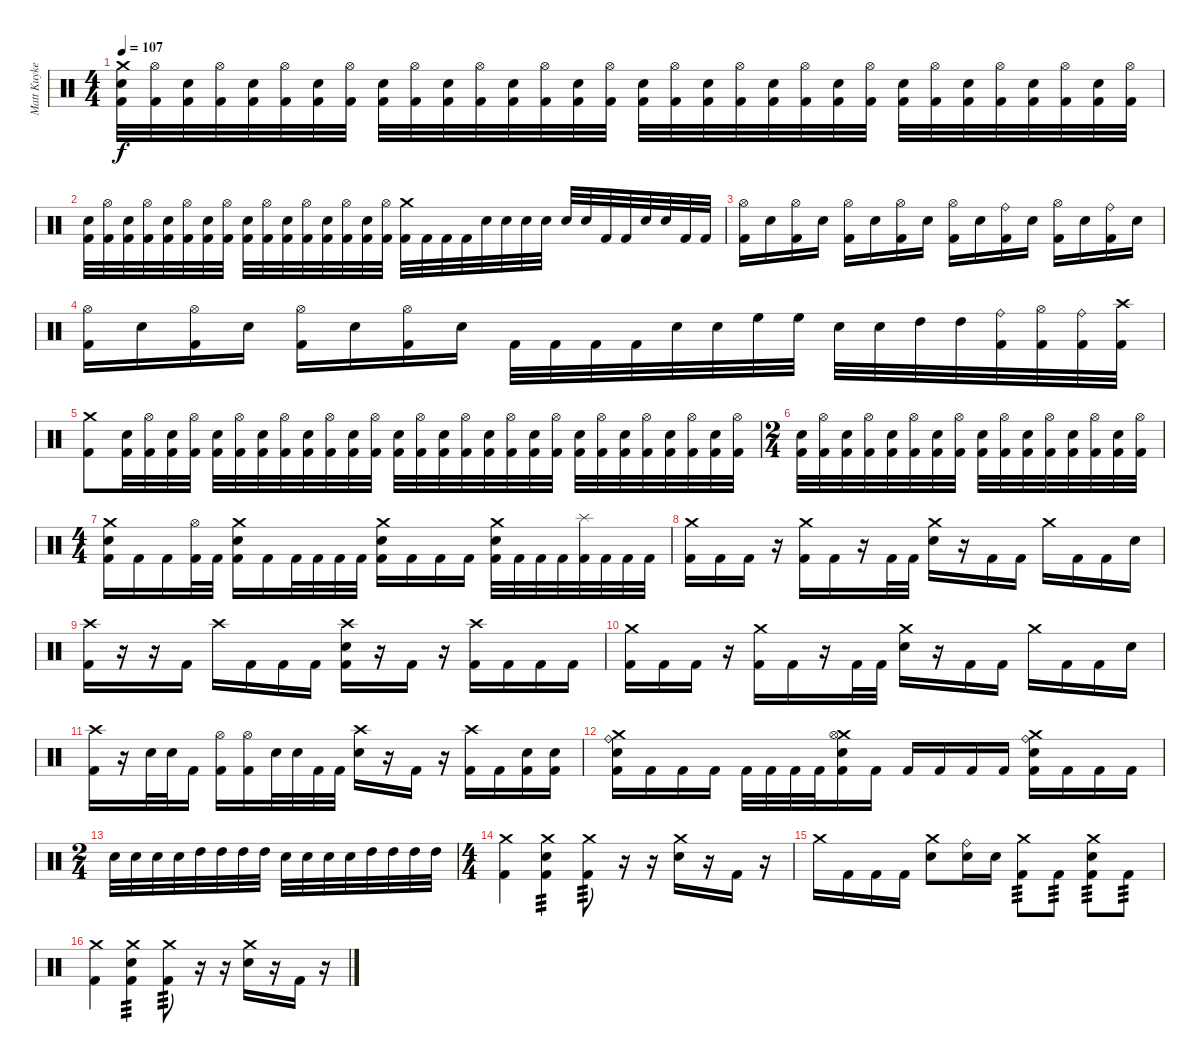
\track ("Matt Kuykendall" "Matt Kuyke") {instrument percussion}
\staff {score}
\articulation defaults
\ts (4 4)
\tempo 107
\clef neutral
\ks c
("Crash medium (hit)" "Electric Snare (hit)" "Kick (hit) 2").32{dy f} ("Hi-Hat (open)" "Kick (hit) 2").32 ("Electric Snare (hit)" "Kick (hit) 2").32 ("Hi-Hat (open)" "Kick (hit) 2").32 ("Electric Snare (hit)" "Kick (hit) 2").32 ("Hi-Hat (open)" "Kick (hit) 2").32 ("Electric Snare (hit)" "Kick (hit) 2").32 ("Hi-Hat (open)" "Kick (hit) 2").32 ("Electric Snare (hit)" "Kick (hit) 2").32 ("Hi-Hat (open)" "Kick (hit) 2").32 ("Electric Snare (hit)" "Kick (hit) 2").32 ("Hi-Hat (open)" "Kick (hit) 2").32 ("Electric Snare (hit)" "Kick (hit) 2").32 ("Hi-Hat (open)" "Kick (hit) 2").32 ("Electric Snare (hit)" "Kick (hit) 2").32 ("Hi-Hat (open)" "Kick (hit) 2").32 ("Electric Snare (hit)" "Kick (hit) 2").32 ("Hi-Hat (open)" "Kick (hit) 2").32 ("Electric Snare (hit)" "Kick (hit) 2").32 ("Hi-Hat (open)" "Kick (hit) 2").32 ("Electric Snare (hit)" "Kick (hit) 2").32 ("Hi-Hat (open)" "Kick (hit) 2").32 ("Electric Snare (hit)" "Kick (hit) 2").32 ("Hi-Hat (open)" "Kick (hit) 2").32 ("Electric Snare (hit)" "Kick (hit) 2").32 ("Hi-Hat (open)" "Kick (hit) 2").32 ("Electric Snare (hit)" "Kick (hit) 2").32 ("Hi-Hat (open)" "Kick (hit) 2").32 ("Electric Snare (hit)" "Kick (hit) 2").32 ("Hi-Hat (open)" "Kick (hit) 2").32 ("Electric Snare (hit)" "Kick (hit) 2").32 ("Hi-Hat (open)" "Kick (hit) 2").32 |
("Electric Snare (hit)" "Kick (hit) 2").32 ("Hi-Hat (open)" "Kick (hit) 2").32 ("Electric Snare (hit)" "Kick (hit) 2").32 ("Hi-Hat (open)" "Kick (hit) 2").32 ("Electric Snare (hit)" "Kick (hit) 2").32 ("Hi-Hat (open)" "Kick (hit) 2").32 ("Electric Snare (hit)" "Kick (hit) 2").32 ("Hi-Hat (open)" "Kick (hit) 2").32 ("Electric Snare (hit)" "Kick (hit) 2").32 ("Hi-Hat (open)" "Kick (hit) 2").32 ("Electric Snare (hit)" "Kick (hit) 2").32 ("Hi-Hat (open)" "Kick (hit) 2").32 ("Electric Snare (hit)" "Kick (hit) 2").32 ("Hi-Hat (open)" "Kick (hit) 2").32 ("Electric Snare (hit)" "Kick (hit) 2").32 ("Hi-Hat (open)" "Kick (hit) 2").32 ("Crash medium (hit)" "Kick (hit) 2").32 "Kick (hit) 2".32 "Kick (hit) 2".32 "Kick (hit) 2".32 "Electric Snare (hit)".32 "Electric Snare (hit)".32 "Electric Snare (hit)".32 "Electric Snare (hit)".32 "Electric Snare (hit)".32 "Electric Snare (hit)".32 "Kick (hit) 2".32 "Kick (hit) 2".32 "Electric Snare (hit)".32 "Electric Snare (hit)".32 "Kick (hit) 2".32 "Kick (hit) 2".32 |
("Hi-Hat (open)" "Kick (hit) 2").16 "Electric Snare (hit)".16 ("Hi-Hat (open)" "Kick (hit) 2").16 "Electric Snare (hit)".16 ("Hi-Hat (open)" "Kick (hit) 2").16 "Electric Snare (hit)".16 ("Hi-Hat (open)" "Kick (hit) 2").16 "Electric Snare (hit)".16 ("Hi-Hat (open)" "Kick (hit) 2").16 "Electric Snare (hit)".16 ("Ride (bell)" "Kick (hit) 2").16 "Electric Snare (hit)".16 ("Hi-Hat (open)" "Kick (hit) 2").16 "Electric Snare (hit)".16 ("Ride (bell)" "Kick (hit) 2").16 "Electric Snare (hit)".16 |
("Hi-Hat (open)" "Kick (hit) 2").16 "Electric Snare (hit)".16 ("Hi-Hat (open)" "Kick (hit) 2").16 "Electric Snare (hit)".16 ("Hi-Hat (open)" "Kick (hit) 2").16 "Electric Snare (hit)".16 ("Hi-Hat (open)" "Kick (hit) 2").16 "Electric Snare (hit)".16 "Kick (hit) 2".32 "Kick (hit) 2".32 "Kick (hit) 2".32 "Kick (hit) 2".32 "Electric Snare (hit)".32 "Electric Snare (hit)".32 "High Floor Tom (hit)".32 "High Floor Tom (hit)".32 "Electric Snare (hit)".32 "Electric Snare (hit)".32 "High Tom (hit)".32 "High Tom (hit)".32 ("Ride (bell)" "Kick (hit) 2").32 ("Hi-Hat (open)" "Kick (hit) 2").32 ("Ride (bell)" "Kick (hit) 2").32 ("Crash high (hit)" "Kick (hit) 2").32 |
("Crash medium (hit)" "Kick (hit) 2").8 ("Electric Snare (hit)" "Kick (hit) 2").32 ("Hi-Hat (open)" "Kick (hit) 2").32 ("Electric Snare (hit)" "Kick (hit) 2").32 ("Hi-Hat (open)" "Kick (hit) 2").32 ("Electric Snare (hit)" "Kick (hit) 2").32 ("Hi-Hat (open)" "Kick (hit) 2").32 ("Electric Snare (hit)" "Kick (hit) 2").32 ("Hi-Hat (open)" "Kick (hit) 2").32 ("Electric Snare (hit)" "Kick (hit) 2").32 ("Hi-Hat (open)" "Kick (hit) 2").32 ("Electric Snare (hit)" "Kick (hit) 2").32 ("Hi-Hat (open)" "Kick (hit) 2").32 ("Electric Snare (hit)" "Kick (hit) 2").32 ("Hi-Hat (open)" "Kick (hit) 2").32 ("Electric Snare (hit)" "Kick (hit) 2").32 ("Hi-Hat (open)" "Kick (hit) 2").32 ("Electric Snare (hit)" "Kick (hit) 2").32 ("Hi-Hat (open)" "Kick (hit) 2").32 ("Electric Snare (hit)" "Kick (hit) 2").32 ("Hi-Hat (open)" "Kick (hit) 2").32 ("Electric Snare (hit)" "Kick (hit) 2").32 ("Hi-Hat (open)" "Kick (hit) 2").32 ("Electric Snare (hit)" "Kick (hit) 2").32 ("Hi-Hat (open)" "Kick (hit) 2").32 ("Electric Snare (hit)" "Kick (hit) 2").32 ("Hi-Hat (open)" "Kick (hit) 2").32 ("Electric Snare (hit)" "Kick (hit) 2").32 ("Hi-Hat (open)" "Kick (hit) 2").32 |
\ts (2 4)
("Electric Snare (hit)" "Kick (hit) 2").32 ("Hi-Hat (open)" "Kick (hit) 2").32 ("Electric Snare (hit)" "Kick (hit) 2").32 ("Hi-Hat (open)" "Kick (hit) 2").32 ("Electric Snare (hit)" "Kick (hit) 2").32 ("Hi-Hat (open)" "Kick (hit) 2").32 ("Electric Snare (hit)" "Kick (hit) 2").32 ("Hi-Hat (open)" "Kick (hit) 2").32 ("Electric Snare (hit)" "Kick (hit) 2").32 ("Hi-Hat (open)" "Kick (hit) 2").32 ("Electric Snare (hit)" "Kick (hit) 2").32 ("Hi-Hat (open)" "Kick (hit) 2").32 ("Electric Snare (hit)" "Kick (hit) 2").32 ("Hi-Hat (open)" "Kick (hit) 2").32 ("Electric Snare (hit)" "Kick (hit) 2").32 ("Hi-Hat (open)" "Kick (hit) 2").32 |
\ts (4 4)
("Crash medium (hit)" "Electric Snare (hit)" "Kick (hit) 2").16 "Kick (hit) 2".16 "Kick (hit) 2".16 ("Hi-Hat (open)" "Kick (hit) 2").32 "Kick (hit) 2".32 ("Crash medium (hit)" "Electric Snare (hit)" "Kick (hit) 2").16 "Kick (hit) 2".16 "Kick (hit) 2".32 "Kick (hit) 2".32 "Kick (hit) 2".32 "Kick (hit) 2".32 ("Crash medium (hit)" "Electric Snare (hit)" "Kick (hit) 2").16 "Kick (hit) 2".16 "Kick (hit) 2".16 "Kick (hit) 2".16 ("Crash medium (hit)" "Electric Snare (hit)" "Kick (hit) 2").32 "Kick (hit) 2".32 "Kick (hit) 2".32 "Kick (hit) 2".32 ("Splash (hit)" "Kick (hit) 2").32 "Kick (hit) 2".32 "Kick (hit) 2".32 "Kick (hit) 2".32 |
("Crash medium (hit)" "Kick (hit) 2").16 "Kick (hit) 2".16 "Kick (hit) 2".16 r.16 ("Crash medium (hit)" "Kick (hit) 2").16 "Kick (hit) 2".16 r.16 "Kick (hit) 2".32 "Kick (hit) 2".32 ("Crash medium (hit)" "Electric Snare (hit)").16 r.16 "Kick (hit) 2".16 "Kick (hit) 2".16 "Crash medium (hit)".16 "Kick (hit) 2".16 "Kick (hit) 2".16 "Electric Snare (hit)".16 |
("Crash high (hit)" "Kick (hit) 2").16 r.16 r.16 "Kick (hit) 2".16 "Crash high (hit)".16 "Kick (hit) 2".16 "Kick (hit) 2".16 "Kick (hit) 2".16 ("Crash high (hit)" "Electric Snare (hit)" "Kick (hit) 2").16 r.16 "Kick (hit) 2".16 r.16 ("Crash high (hit)" "Kick (hit) 2").16 "Kick (hit) 2".16 "Kick (hit) 2".16 "Kick (hit) 2".16 |
("Crash medium (hit)" "Kick (hit) 2").16 "Kick (hit) 2".16 "Kick (hit) 2".16 r.16 ("Crash medium (hit)" "Kick (hit) 2").16 "Kick (hit) 2".16 r.16 "Kick (hit) 2".32 "Kick (hit) 2".32 ("Crash medium (hit)" "Electric Snare (hit)").16 r.16 "Kick (hit) 2".16 "Kick (hit) 2".16 "Crash medium (hit)".16 "Kick (hit) 2".16 "Kick (hit) 2".16 "Electric Snare (hit)".16 |
("Crash high (hit)" "Kick (hit) 2").16 r.16 "Electric Snare (hit)".32 "Electric Snare (hit)".32 "Kick (hit) 2".16 ("Hi-Hat (open)" "Kick (hit) 2").16 ("Hi-Hat (open)" "Kick (hit) 2").16 "Electric Snare (hit)".32 "Electric Snare (hit)".32 "Kick (hit) 2".32 "Kick (hit) 2".32 ("Crash high (hit)" "Electric Snare (hit)").16 r.16 "Kick (hit) 2".16 r.16 ("Crash high (hit)" "Kick (hit) 2").16 "Kick (hit) 2".16 ("Electric Snare (hit)" "Kick (hit) 2").16 ("Electric Snare (hit)" "Kick (hit) 2").16 |
("Crash medium (hit)" "Ride (bell)" "Electric Snare (hit)" "Kick (hit) 2").16 "Kick (hit) 2".16 "Kick (hit) 2".16 "Kick (hit) 2".16 "Kick (hit) 2".32 "Kick (hit) 2".32 "Kick (hit) 2".32 "Kick (hit) 2".32 ("Crash medium (hit)" "Hi-Hat (open)" "Electric Snare (hit)" "Kick (hit) 2").16 "Kick (hit) 2".16 "Kick (hit) 2".16 "Kick (hit) 2".16 "Kick (hit) 2".16 "Kick (hit) 2".16 ("Crash medium (hit)" "Ride (bell)" "Electric Snare (hit)" "Kick (hit) 2").16 "Kick (hit) 2".16 "Kick (hit) 2".16 "Kick (hit) 2".16 |
\ts (2 4)
"Electric Snare (hit)".32 "Electric Snare (hit)".32 "Electric Snare (hit)".32 "Electric Snare (hit)".32 "High Tom (hit)".32 "High Tom (hit)".32 "High Tom (hit)".32 "High Tom (hit)".32 "Electric Snare (hit)".32 "Electric Snare (hit)".32 "Electric Snare (hit)".32 "Electric Snare (hit)".32 "High Tom (hit)".32 "High Tom (hit)".32 "High Tom (hit)".32 "High Tom (hit)".32 |
\ts (4 4)
("Crash medium (hit)" "Kick (hit) 2").4 ("Crash medium (hit)" "Electric Snare (hit)" "Kick (hit) 2").4{tp 3} ("Crash medium (hit)" "Kick (hit) 2").8{tp 3} r.16 r.16 ("Crash medium (hit)" "Electric Snare (hit)").16 r.16 "Kick (hit) 2".16 r.16 |
"Crash medium (hit)".16 "Kick (hit) 2".16 "Kick (hit) 2".16 "Kick (hit) 2".16 ("Crash medium (hit)" "Electric Snare (hit)").8 ("Ride (bell)" "Electric Snare (hit)").16 "Electric Snare (hit)".16 ("Crash medium (hit)" "Kick (hit) 2").8{tp 3} "Kick (hit) 2".8{tp 3} ("Crash medium (hit)" "Electric Snare (hit)" "Kick (hit) 2").8{tp 3} "Kick (hit) 2".8{tp 3} |
("Crash medium (hit)" "Kick (hit) 2").4 ("Crash medium (hit)" "Electric Snare (hit)" "Kick (hit) 2").4{tp 3} ("Crash medium (hit)" "Kick (hit) 2").8{tp 3} r.16 r.16 ("Crash medium (hit)" "Electric Snare (hit)").16 r.16 "Kick (hit) 2".16 r.16
